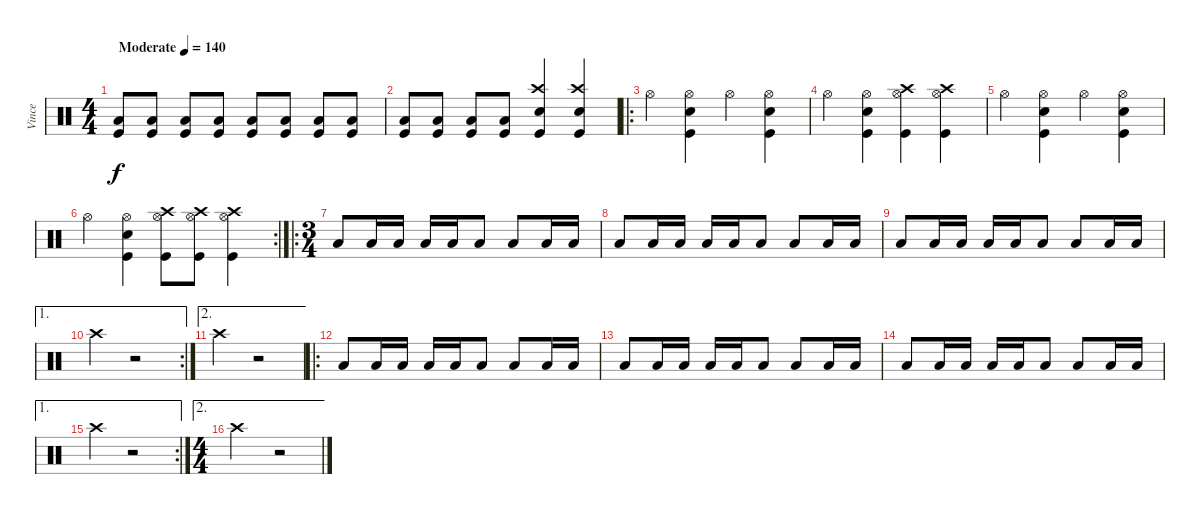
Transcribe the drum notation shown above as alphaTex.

\track ("Vince" "Vince") {instrument percussion}
\staff {score}
\articulation defaults
\ts (4 4)
\tempo (140 "Moderate")
\clef neutral
\ks c
("Kick (hit)" "Low Tom (hit)").8{dy f} ("Kick (hit)" "Low Tom (hit)").8 ("Kick (hit)" "Low Tom (hit)").8 ("Kick (hit)" "Low Tom (hit)").8 ("Kick (hit)" "Low Tom (hit)").8 ("Kick (hit)" "Low Tom (hit)").8 ("Kick (hit)" "Low Tom (hit)").8 ("Kick (hit)" "Low Tom (hit)").8 |
("Kick (hit)" "Low Tom (hit)").8 ("Kick (hit)" "Low Tom (hit)").8 ("Kick (hit)" "Low Tom (hit)").8 ("Kick (hit)" "Low Tom (hit)").8 ("Crash high (hit)" "Snare (hit) 2" "Kick (hit)").4 ("Crash high (hit)" "Snare (hit) 2" "Kick (hit)").4 |
\ro "Hi-Hat (open)".4
("Hi-Hat (open)" "Snare (hit) 2" "Kick (hit)").4 "Hi-Hat (open)".4 ("Hi-Hat (open)" "Snare (hit) 2" "Kick (hit)").4 |
"Hi-Hat (open)".4 ("Hi-Hat (open)" "Snare (hit) 2" "Kick (hit)").4 ("Hi-Hat (open)" "Crash high (hit)" "Kick (hit)").4 ("Hi-Hat (open)" "Crash high (hit)" "Kick (hit)").4 |
"Hi-Hat (open)".4 ("Hi-Hat (open)" "Snare (hit) 2" "Kick (hit)").4 "Hi-Hat (open)".4 ("Hi-Hat (open)" "Snare (hit) 2" "Kick (hit)").4 |
\rc 2 "Hi-Hat (open)".4
("Hi-Hat (open)" "Snare (hit) 2" "Kick (hit)").4 ("Crash high (hit)" "Hi-Hat (open)" "Kick (hit)").8 ("Kick (hit)" "Crash high (hit)" "Hi-Hat (open)").8 ("Crash high (hit)" "Hi-Hat (open)" "Kick (hit)").4 |
\ro
\ts (3 4)
"Low Floor Tom (hit)".8 "Low Floor Tom (hit)".16 "Low Floor Tom (hit)".16 "Low Floor Tom (hit)".16 "Low Floor Tom (hit)".16 "Low Floor Tom (hit)".8 "Low Floor Tom (hit)".8 "Low Floor Tom (hit)".16 "Low Floor Tom (hit)".16 |
"Low Floor Tom (hit)".8 "Low Floor Tom (hit)".16 "Low Floor Tom (hit)".16 "Low Floor Tom (hit)".16 "Low Floor Tom (hit)".16 "Low Floor Tom (hit)".8 "Low Floor Tom (hit)".8 "Low Floor Tom (hit)".16 "Low Floor Tom (hit)".16 |
"Low Floor Tom (hit)".8 "Low Floor Tom (hit)".16 "Low Floor Tom (hit)".16 "Low Floor Tom (hit)".16 "Low Floor Tom (hit)".16 "Low Floor Tom (hit)".8 "Low Floor Tom (hit)".8 "Low Floor Tom (hit)".16 "Low Floor Tom (hit)".16 |
\ae 1
\rc 2 "Crash high (hit)".4
r.2 |
\ae 2 "Crash high (hit)".4
r.2 |
\ro "Low Floor Tom (hit)".8 "Low Floor Tom (hit)".16 "Low Floor Tom (hit)".16 "Low Floor Tom (hit)".16 "Low Floor Tom (hit)".16 "Low Floor Tom (hit)".8 "Low Floor Tom (hit)".8 "Low Floor Tom (hit)".16 "Low Floor Tom (hit)".16
|
"Low Floor Tom (hit)".8 "Low Floor Tom (hit)".16 "Low Floor Tom (hit)".16 "Low Floor Tom (hit)".16 "Low Floor Tom (hit)".16 "Low Floor Tom (hit)".8 "Low Floor Tom (hit)".8 "Low Floor Tom (hit)".16 "Low Floor Tom (hit)".16 |
"Low Floor Tom (hit)".8 "Low Floor Tom (hit)".16 "Low Floor Tom (hit)".16 "Low Floor Tom (hit)".16 "Low Floor Tom (hit)".16 "Low Floor Tom (hit)".8 "Low Floor Tom (hit)".8 "Low Floor Tom (hit)".16 "Low Floor Tom (hit)".16 |
\ae 1
\rc 2 "Crash high (hit)".4
r.2 |
\ae 2
\ts (4 4)
"Crash high (hit)".2 r.2
